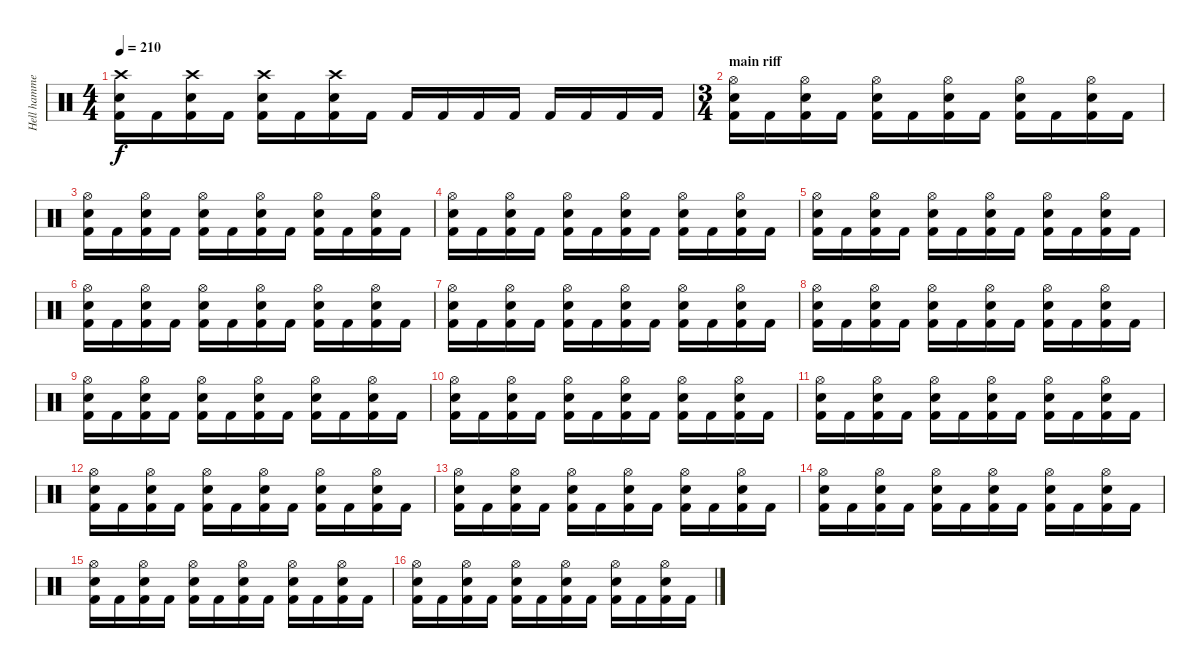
\track ("Hell hammers" "Hell hamme") {instrument percussion}
\staff {score}
\articulation defaults
\ts (4 4)
\tempo 210
\clef neutral
\ks c
("Crash high (hit)" "Snare (hit) 2" "Kick (hit) 2").16{dy f} "Kick (hit) 2".16 ("Crash high (hit)" "Snare (hit) 2" "Kick (hit) 2").16 "Kick (hit) 2".16 ("Crash high (hit)" "Snare (hit) 2" "Kick (hit) 2").16 "Kick (hit) 2".16 ("Crash high (hit)" "Snare (hit) 2" "Kick (hit) 2").16 "Kick (hit) 2".16 "Kick (hit) 2".16 "Kick (hit) 2".16 "Kick (hit) 2".16 "Kick (hit) 2".16 "Kick (hit) 2".16 "Kick (hit) 2".16 "Kick (hit) 2".16 "Kick (hit) 2".16 |
\ts (3 4)
\section ("" "main riff")
("Hi-Hat (open)" "Snare (hit) 2" "Kick (hit) 2").16 "Kick (hit) 2".16 ("Hi-Hat (open)" "Snare (hit) 2" "Kick (hit) 2").16 "Kick (hit) 2".16 ("Hi-Hat (open)" "Snare (hit) 2" "Kick (hit) 2").16 "Kick (hit) 2".16 ("Hi-Hat (open)" "Snare (hit) 2" "Kick (hit) 2").16 "Kick (hit) 2".16 ("Hi-Hat (open)" "Snare (hit) 2" "Kick (hit) 2").16 "Kick (hit) 2".16 ("Hi-Hat (open)" "Snare (hit) 2" "Kick (hit) 2").16 "Kick (hit) 2".16 |
("Hi-Hat (open)" "Snare (hit) 2" "Kick (hit) 2").16 "Kick (hit) 2".16 ("Hi-Hat (open)" "Snare (hit) 2" "Kick (hit) 2").16 "Kick (hit) 2".16 ("Hi-Hat (open)" "Snare (hit) 2" "Kick (hit) 2").16 "Kick (hit) 2".16 ("Hi-Hat (open)" "Snare (hit) 2" "Kick (hit) 2").16 "Kick (hit) 2".16 ("Hi-Hat (open)" "Snare (hit) 2" "Kick (hit) 2").16 "Kick (hit) 2".16 ("Hi-Hat (open)" "Snare (hit) 2" "Kick (hit) 2").16 "Kick (hit) 2".16 |
("Hi-Hat (open)" "Snare (hit) 2" "Kick (hit) 2").16 "Kick (hit) 2".16 ("Hi-Hat (open)" "Snare (hit) 2" "Kick (hit) 2").16 "Kick (hit) 2".16 ("Hi-Hat (open)" "Snare (hit) 2" "Kick (hit) 2").16 "Kick (hit) 2".16 ("Hi-Hat (open)" "Snare (hit) 2" "Kick (hit) 2").16 "Kick (hit) 2".16 ("Hi-Hat (open)" "Snare (hit) 2" "Kick (hit) 2").16 "Kick (hit) 2".16 ("Hi-Hat (open)" "Snare (hit) 2" "Kick (hit) 2").16 "Kick (hit) 2".16 |
("Hi-Hat (open)" "Snare (hit) 2" "Kick (hit) 2").16 "Kick (hit) 2".16 ("Hi-Hat (open)" "Snare (hit) 2" "Kick (hit) 2").16 "Kick (hit) 2".16 ("Hi-Hat (open)" "Snare (hit) 2" "Kick (hit) 2").16 "Kick (hit) 2".16 ("Hi-Hat (open)" "Snare (hit) 2" "Kick (hit) 2").16 "Kick (hit) 2".16 ("Hi-Hat (open)" "Snare (hit) 2" "Kick (hit) 2").16 "Kick (hit) 2".16 ("Hi-Hat (open)" "Snare (hit) 2" "Kick (hit) 2").16 "Kick (hit) 2".16 |
("Hi-Hat (open)" "Snare (hit) 2" "Kick (hit) 2").16 "Kick (hit) 2".16 ("Hi-Hat (open)" "Snare (hit) 2" "Kick (hit) 2").16 "Kick (hit) 2".16 ("Hi-Hat (open)" "Snare (hit) 2" "Kick (hit) 2").16 "Kick (hit) 2".16 ("Hi-Hat (open)" "Snare (hit) 2" "Kick (hit) 2").16 "Kick (hit) 2".16 ("Hi-Hat (open)" "Snare (hit) 2" "Kick (hit) 2").16 "Kick (hit) 2".16 ("Hi-Hat (open)" "Snare (hit) 2" "Kick (hit) 2").16 "Kick (hit) 2".16 |
("Hi-Hat (open)" "Snare (hit) 2" "Kick (hit) 2").16 "Kick (hit) 2".16 ("Hi-Hat (open)" "Snare (hit) 2" "Kick (hit) 2").16 "Kick (hit) 2".16 ("Hi-Hat (open)" "Snare (hit) 2" "Kick (hit) 2").16 "Kick (hit) 2".16 ("Hi-Hat (open)" "Snare (hit) 2" "Kick (hit) 2").16 "Kick (hit) 2".16 ("Hi-Hat (open)" "Snare (hit) 2" "Kick (hit) 2").16 "Kick (hit) 2".16 ("Hi-Hat (open)" "Snare (hit) 2" "Kick (hit) 2").16 "Kick (hit) 2".16 |
("Hi-Hat (open)" "Snare (hit) 2" "Kick (hit) 2").16 "Kick (hit) 2".16 ("Hi-Hat (open)" "Snare (hit) 2" "Kick (hit) 2").16 "Kick (hit) 2".16 ("Hi-Hat (open)" "Snare (hit) 2" "Kick (hit) 2").16 "Kick (hit) 2".16 ("Hi-Hat (open)" "Snare (hit) 2" "Kick (hit) 2").16 "Kick (hit) 2".16 ("Hi-Hat (open)" "Snare (hit) 2" "Kick (hit) 2").16 "Kick (hit) 2".16 ("Hi-Hat (open)" "Snare (hit) 2" "Kick (hit) 2").16 "Kick (hit) 2".16 |
("Hi-Hat (open)" "Snare (hit) 2" "Kick (hit) 2").16 "Kick (hit) 2".16 ("Hi-Hat (open)" "Snare (hit) 2" "Kick (hit) 2").16 "Kick (hit) 2".16 ("Hi-Hat (open)" "Snare (hit) 2" "Kick (hit) 2").16 "Kick (hit) 2".16 ("Hi-Hat (open)" "Snare (hit) 2" "Kick (hit) 2").16 "Kick (hit) 2".16 ("Hi-Hat (open)" "Snare (hit) 2" "Kick (hit) 2").16 "Kick (hit) 2".16 ("Hi-Hat (open)" "Snare (hit) 2" "Kick (hit) 2").16 "Kick (hit) 2".16 |
("Hi-Hat (open)" "Snare (hit) 2" "Kick (hit) 2").16 "Kick (hit) 2".16 ("Hi-Hat (open)" "Snare (hit) 2" "Kick (hit) 2").16 "Kick (hit) 2".16 ("Hi-Hat (open)" "Snare (hit) 2" "Kick (hit) 2").16 "Kick (hit) 2".16 ("Hi-Hat (open)" "Snare (hit) 2" "Kick (hit) 2").16 "Kick (hit) 2".16 ("Hi-Hat (open)" "Snare (hit) 2" "Kick (hit) 2").16 "Kick (hit) 2".16 ("Hi-Hat (open)" "Snare (hit) 2" "Kick (hit) 2").16 "Kick (hit) 2".16 |
("Hi-Hat (open)" "Snare (hit) 2" "Kick (hit) 2").16 "Kick (hit) 2".16 ("Hi-Hat (open)" "Snare (hit) 2" "Kick (hit) 2").16 "Kick (hit) 2".16 ("Hi-Hat (open)" "Snare (hit) 2" "Kick (hit) 2").16 "Kick (hit) 2".16 ("Hi-Hat (open)" "Snare (hit) 2" "Kick (hit) 2").16 "Kick (hit) 2".16 ("Hi-Hat (open)" "Snare (hit) 2" "Kick (hit) 2").16 "Kick (hit) 2".16 ("Hi-Hat (open)" "Snare (hit) 2" "Kick (hit) 2").16 "Kick (hit) 2".16 |
("Hi-Hat (open)" "Snare (hit) 2" "Kick (hit) 2").16 "Kick (hit) 2".16 ("Hi-Hat (open)" "Snare (hit) 2" "Kick (hit) 2").16 "Kick (hit) 2".16 ("Hi-Hat (open)" "Snare (hit) 2" "Kick (hit) 2").16 "Kick (hit) 2".16 ("Hi-Hat (open)" "Snare (hit) 2" "Kick (hit) 2").16 "Kick (hit) 2".16 ("Hi-Hat (open)" "Snare (hit) 2" "Kick (hit) 2").16 "Kick (hit) 2".16 ("Hi-Hat (open)" "Snare (hit) 2" "Kick (hit) 2").16 "Kick (hit) 2".16 |
("Hi-Hat (open)" "Snare (hit) 2" "Kick (hit) 2").16 "Kick (hit) 2".16 ("Hi-Hat (open)" "Snare (hit) 2" "Kick (hit) 2").16 "Kick (hit) 2".16 ("Hi-Hat (open)" "Snare (hit) 2" "Kick (hit) 2").16 "Kick (hit) 2".16 ("Hi-Hat (open)" "Snare (hit) 2" "Kick (hit) 2").16 "Kick (hit) 2".16 ("Hi-Hat (open)" "Snare (hit) 2" "Kick (hit) 2").16 "Kick (hit) 2".16 ("Hi-Hat (open)" "Snare (hit) 2" "Kick (hit) 2").16 "Kick (hit) 2".16 |
("Hi-Hat (open)" "Snare (hit) 2" "Kick (hit) 2").16 "Kick (hit) 2".16 ("Hi-Hat (open)" "Snare (hit) 2" "Kick (hit) 2").16 "Kick (hit) 2".16 ("Hi-Hat (open)" "Snare (hit) 2" "Kick (hit) 2").16 "Kick (hit) 2".16 ("Hi-Hat (open)" "Snare (hit) 2" "Kick (hit) 2").16 "Kick (hit) 2".16 ("Hi-Hat (open)" "Snare (hit) 2" "Kick (hit) 2").16 "Kick (hit) 2".16 ("Hi-Hat (open)" "Snare (hit) 2" "Kick (hit) 2").16 "Kick (hit) 2".16 |
("Hi-Hat (open)" "Snare (hit) 2" "Kick (hit) 2").16 "Kick (hit) 2".16 ("Hi-Hat (open)" "Snare (hit) 2" "Kick (hit) 2").16 "Kick (hit) 2".16 ("Hi-Hat (open)" "Snare (hit) 2" "Kick (hit) 2").16 "Kick (hit) 2".16 ("Hi-Hat (open)" "Snare (hit) 2" "Kick (hit) 2").16 "Kick (hit) 2".16 ("Hi-Hat (open)" "Snare (hit) 2" "Kick (hit) 2").16 "Kick (hit) 2".16 ("Hi-Hat (open)" "Snare (hit) 2" "Kick (hit) 2").16 "Kick (hit) 2".16 |
("Hi-Hat (open)" "Snare (hit) 2" "Kick (hit) 2").16 "Kick (hit) 2".16 ("Hi-Hat (open)" "Snare (hit) 2" "Kick (hit) 2").16 "Kick (hit) 2".16 ("Hi-Hat (open)" "Snare (hit) 2" "Kick (hit) 2").16 "Kick (hit) 2".16 ("Hi-Hat (open)" "Snare (hit) 2" "Kick (hit) 2").16 "Kick (hit) 2".16 ("Hi-Hat (open)" "Snare (hit) 2" "Kick (hit) 2").16 "Kick (hit) 2".16 ("Hi-Hat (open)" "Snare (hit) 2" "Kick (hit) 2").16 "Kick (hit) 2".16
